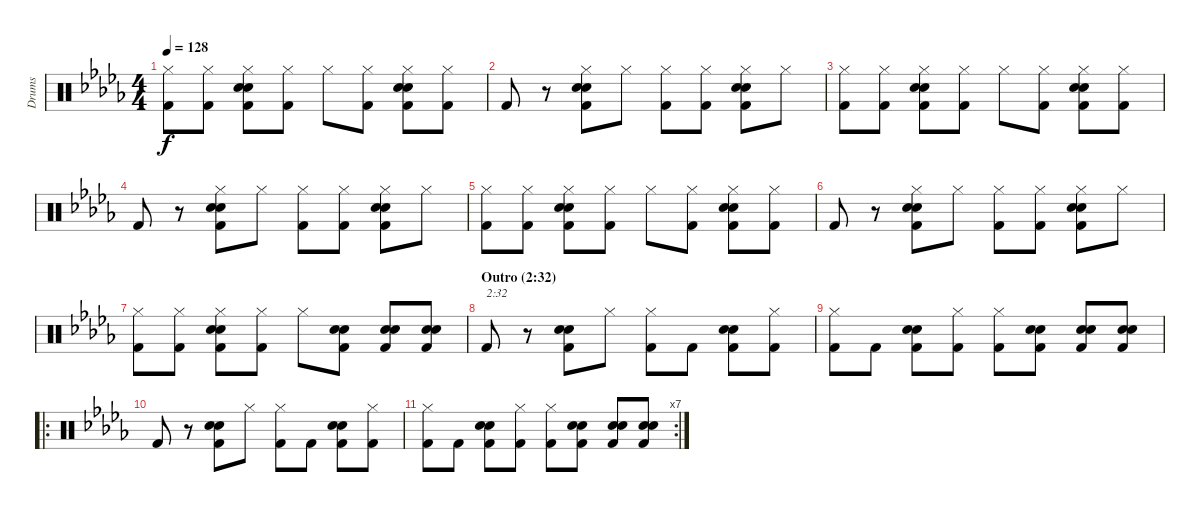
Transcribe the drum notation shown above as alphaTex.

\track ("Drums" "Drums") {instrument percussion}
\staff {score}
\articulation defaults
\ts (4 4)
\tempo 128
\clef neutral
\ks bbminor
("Kick (hit) 2" "Hi-Hat (closed)").8{dy f} ("Kick (hit) 2" "Hi-Hat (closed)").8 ("Kick (hit) 2" "Hi-Hat (closed)" "Electric Snare (hit)" "Electric Snare (hit)").8 ("Kick (hit) 2" "Hi-Hat (closed)").8 "Hi-Hat (closed)".8 ("Kick (hit) 2" "Hi-Hat (closed)").8 ("Kick (hit) 2" "Hi-Hat (closed)" "Electric Snare (hit)" "Electric Snare (hit)").8 ("Kick (hit) 2" "Hi-Hat (closed)").8 |
"Kick (hit) 2".8 r.8 ("Kick (hit) 2" "Hi-Hat (closed)" "Electric Snare (hit)" "Electric Snare (hit)").8 "Hi-Hat (closed)".8 ("Kick (hit) 2" "Hi-Hat (closed)").8 ("Kick (hit) 2" "Hi-Hat (closed)").8 ("Kick (hit) 2" "Hi-Hat (closed)" "Electric Snare (hit)" "Electric Snare (hit)").8 "Hi-Hat (closed)".8 |
("Kick (hit) 2" "Hi-Hat (closed)").8 ("Kick (hit) 2" "Hi-Hat (closed)").8 ("Kick (hit) 2" "Hi-Hat (closed)" "Electric Snare (hit)" "Electric Snare (hit)").8 ("Kick (hit) 2" "Hi-Hat (closed)").8 "Hi-Hat (closed)".8 ("Kick (hit) 2" "Hi-Hat (closed)").8 ("Kick (hit) 2" "Hi-Hat (closed)" "Electric Snare (hit)" "Electric Snare (hit)").8 ("Kick (hit) 2" "Hi-Hat (closed)").8 |
"Kick (hit) 2".8 r.8 ("Kick (hit) 2" "Hi-Hat (closed)" "Electric Snare (hit)" "Electric Snare (hit)").8 "Hi-Hat (closed)".8 ("Kick (hit) 2" "Hi-Hat (closed)").8 ("Kick (hit) 2" "Hi-Hat (closed)").8 ("Kick (hit) 2" "Hi-Hat (closed)" "Electric Snare (hit)" "Electric Snare (hit)").8 "Hi-Hat (closed)".8 |
("Kick (hit) 2" "Hi-Hat (closed)").8 ("Kick (hit) 2" "Hi-Hat (closed)").8 ("Kick (hit) 2" "Hi-Hat (closed)" "Electric Snare (hit)" "Electric Snare (hit)").8 ("Kick (hit) 2" "Hi-Hat (closed)").8 "Hi-Hat (closed)".8 ("Kick (hit) 2" "Hi-Hat (closed)").8 ("Kick (hit) 2" "Hi-Hat (closed)" "Electric Snare (hit)" "Electric Snare (hit)").8 ("Kick (hit) 2" "Hi-Hat (closed)").8 |
"Kick (hit) 2".8 r.8 ("Kick (hit) 2" "Hi-Hat (closed)" "Electric Snare (hit)" "Electric Snare (hit)").8 "Hi-Hat (closed)".8 ("Kick (hit) 2" "Hi-Hat (closed)").8 ("Kick (hit) 2" "Hi-Hat (closed)").8 ("Kick (hit) 2" "Hi-Hat (closed)" "Electric Snare (hit)" "Electric Snare (hit)").8 "Hi-Hat (closed)".8 |
("Kick (hit) 2" "Hi-Hat (closed)").8 ("Kick (hit) 2" "Hi-Hat (closed)").8 ("Kick (hit) 2" "Hi-Hat (closed)" "Electric Snare (hit)" "Electric Snare (hit)").8 ("Kick (hit) 2" "Hi-Hat (closed)").8 "Hi-Hat (closed)".8 ("Kick (hit) 2" "Electric Snare (hit)" "Electric Snare (hit)").8 ("Kick (hit) 2" "Electric Snare (hit)" "Electric Snare (hit)").8 ("Kick (hit) 2" "Electric Snare (hit)" "Electric Snare (hit)").8 |
\section ("" "Outro (2:32)")
"Kick (hit) 2".8{txt "2:32"} r.8 ("Kick (hit) 2" "Electric Snare (hit)" "Electric Snare (hit)").8 "Hi-Hat (closed)".8 ("Kick (hit) 2" "Hi-Hat (closed)").8 "Kick (hit) 2".8 ("Kick (hit) 2" "Electric Snare (hit)" "Electric Snare (hit)").8 ("Kick (hit) 2" "Hi-Hat (closed)").8 |
("Kick (hit) 2" "Hi-Hat (closed)").8 "Kick (hit) 2".8 ("Kick (hit) 2" "Electric Snare (hit)" "Electric Snare (hit)").8 ("Kick (hit) 2" "Hi-Hat (closed)").8 ("Kick (hit) 2" "Hi-Hat (closed)").8 ("Kick (hit) 2" "Electric Snare (hit)" "Electric Snare (hit)").8 ("Kick (hit) 2" "Electric Snare (hit)" "Electric Snare (hit)").8 ("Kick (hit) 2" "Electric Snare (hit)" "Electric Snare (hit)").8 |
\ro "Kick (hit) 2".8
r.8 ("Kick (hit) 2" "Electric Snare (hit)" "Electric Snare (hit)").8 "Hi-Hat (closed)".8 ("Kick (hit) 2" "Hi-Hat (closed)").8 "Kick (hit) 2".8 ("Kick (hit) 2" "Electric Snare (hit)" "Electric Snare (hit)").8 ("Kick (hit) 2" "Hi-Hat (closed)").8 |
\rc 7
("Kick (hit) 2" "Hi-Hat (closed)").8 "Kick (hit) 2".8 ("Kick (hit) 2" "Electric Snare (hit)" "Electric Snare (hit)").8 ("Kick (hit) 2" "Hi-Hat (closed)").8 ("Kick (hit) 2" "Hi-Hat (closed)").8 ("Kick (hit) 2" "Electric Snare (hit)" "Electric Snare (hit)").8 ("Kick (hit) 2" "Electric Snare (hit)" "Electric Snare (hit)").8 ("Kick (hit) 2" "Electric Snare (hit)" "Electric Snare (hit)").8
